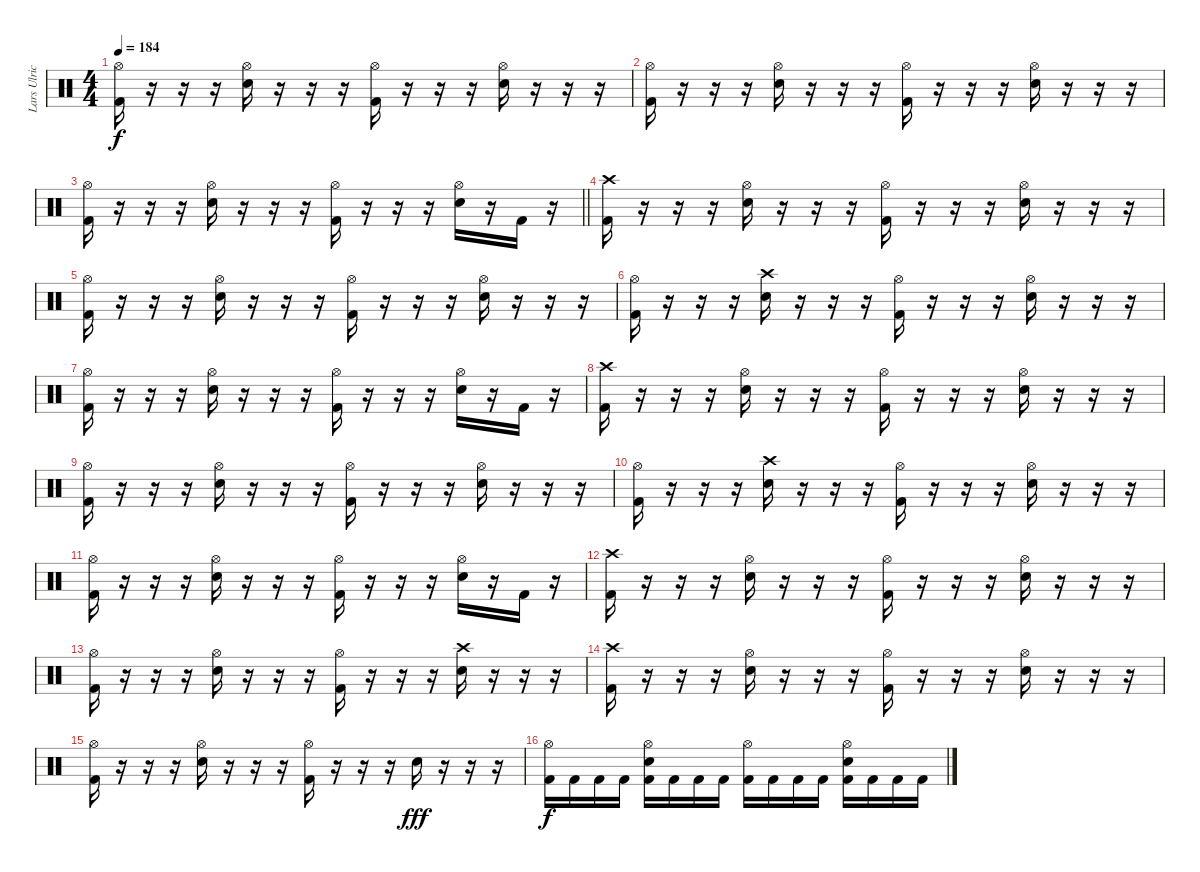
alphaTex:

\track ("Lars Ulrich" "Lars Ulric") {instrument percussion}
\staff {score}
\articulation defaults
\ts (4 4)
\tempo 184
\clef neutral
\ks c
("Hi-Hat (open)" "Kick (hit) 2").16{dy f} r.16 r.16 r.16 ("Electric Snare (hit)" "Hi-Hat (open)").16 r.16 r.16 r.16 ("Hi-Hat (open)" "Kick (hit) 2").16 r.16 r.16 r.16 ("Electric Snare (hit)" "Hi-Hat (open)").16 r.16 r.16 r.16 |
("Hi-Hat (open)" "Kick (hit) 2").16 r.16 r.16 r.16 ("Electric Snare (hit)" "Hi-Hat (open)").16 r.16 r.16 r.16 ("Hi-Hat (open)" "Kick (hit) 2").16 r.16 r.16 r.16 ("Electric Snare (hit)" "Hi-Hat (open)").16 r.16 r.16 r.16 |
\barLineRight lightlight
("Hi-Hat (open)" "Kick (hit) 2").16 r.16 r.16 r.16 ("Electric Snare (hit)" "Hi-Hat (open)").16 r.16 r.16 r.16 ("Hi-Hat (open)" "Kick (hit) 2").16 r.16 r.16 r.16 ("Electric Snare (hit)" "Hi-Hat (open)").16 r.16 "Kick (hit) 2".16 r.16 |
\section ("" "")
("Crash high (hit)" "Kick (hit) 2").16 r.16 r.16 r.16 ("Electric Snare (hit)" "Hi-Hat (open)").16 r.16 r.16 r.16 ("Hi-Hat (open)" "Kick (hit) 2").16 r.16 r.16 r.16 ("Electric Snare (hit)" "Hi-Hat (open)").16 r.16 r.16 r.16 |
("Hi-Hat (open)" "Kick (hit) 2").16 r.16 r.16 r.16 ("Electric Snare (hit)" "Hi-Hat (open)").16 r.16 r.16 r.16 ("Hi-Hat (open)" "Kick (hit) 2").16 r.16 r.16 r.16 ("Electric Snare (hit)" "Hi-Hat (open)").16 r.16 r.16 r.16 |
("Hi-Hat (open)" "Kick (hit) 2").16 r.16 r.16 r.16 ("Crash high (hit)" "Electric Snare (hit)").16 r.16 r.16 r.16 ("Hi-Hat (open)" "Kick (hit) 2").16 r.16 r.16 r.16 ("Electric Snare (hit)" "Hi-Hat (open)").16 r.16 r.16 r.16 |
("Hi-Hat (open)" "Kick (hit) 2").16 r.16 r.16 r.16 ("Electric Snare (hit)" "Hi-Hat (open)").16 r.16 r.16 r.16 ("Hi-Hat (open)" "Kick (hit) 2").16 r.16 r.16 r.16 ("Electric Snare (hit)" "Hi-Hat (open)").16 r.16 "Kick (hit) 2".16 r.16 |
("Crash high (hit)" "Kick (hit) 2").16 r.16 r.16 r.16 ("Electric Snare (hit)" "Hi-Hat (open)").16 r.16 r.16 r.16 ("Hi-Hat (open)" "Kick (hit) 2").16 r.16 r.16 r.16 ("Electric Snare (hit)" "Hi-Hat (open)").16 r.16 r.16 r.16 |
("Hi-Hat (open)" "Kick (hit) 2").16 r.16 r.16 r.16 ("Electric Snare (hit)" "Hi-Hat (open)").16 r.16 r.16 r.16 ("Hi-Hat (open)" "Kick (hit) 2").16 r.16 r.16 r.16 ("Electric Snare (hit)" "Hi-Hat (open)").16 r.16 r.16 r.16 |
("Hi-Hat (open)" "Kick (hit) 2").16 r.16 r.16 r.16 ("Crash high (hit)" "Electric Snare (hit)").16 r.16 r.16 r.16 ("Hi-Hat (open)" "Kick (hit) 2").16 r.16 r.16 r.16 ("Electric Snare (hit)" "Hi-Hat (open)").16 r.16 r.16 r.16 |
("Hi-Hat (open)" "Kick (hit) 2").16 r.16 r.16 r.16 ("Electric Snare (hit)" "Hi-Hat (open)").16 r.16 r.16 r.16 ("Hi-Hat (open)" "Kick (hit) 2").16 r.16 r.16 r.16 ("Electric Snare (hit)" "Hi-Hat (open)").16 r.16 "Kick (hit) 2".16 r.16 |
("Crash high (hit)" "Kick (hit) 2").16 r.16 r.16 r.16 ("Electric Snare (hit)" "Hi-Hat (open)").16 r.16 r.16 r.16 ("Hi-Hat (open)" "Kick (hit) 2").16 r.16 r.16 r.16 ("Electric Snare (hit)" "Hi-Hat (open)").16 r.16 r.16 r.16 |
("Hi-Hat (open)" "Kick (hit) 2").16 r.16 r.16 r.16 ("Electric Snare (hit)" "Hi-Hat (open)").16 r.16 r.16 r.16 ("Hi-Hat (open)" "Kick (hit) 2").16 r.16 r.16 r.16 ("Crash high (hit)" "Electric Snare (hit)").16 r.16 r.16 r.16 |
("Crash high (hit)" "Kick (hit) 2").16 r.16 r.16 r.16 ("Electric Snare (hit)" "Hi-Hat (open)").16 r.16 r.16 r.16 ("Hi-Hat (open)" "Kick (hit) 2").16 r.16 r.16 r.16 ("Electric Snare (hit)" "Hi-Hat (open)").16 r.16 r.16 r.16 |
("Hi-Hat (open)" "Kick (hit) 2").16 r.16 r.16 r.16 ("Electric Snare (hit)" "Hi-Hat (open)").16 r.16 r.16 r.16 ("Hi-Hat (open)" "Kick (hit) 2").16 r.16 r.16 r.16 "Electric Snare (hit)".16{dy fff} r.16 r.16 r.16 |
("Hi-Hat (open)" "Kick (hit) 2").16{dy f} "Kick (hit) 2".16 "Kick (hit) 2".16 "Kick (hit) 2".16 ("Electric Snare (hit)" "Hi-Hat (open)" "Kick (hit) 2").16 "Kick (hit) 2".16 "Kick (hit) 2".16 "Kick (hit) 2".16 ("Hi-Hat (open)" "Kick (hit) 2").16 "Kick (hit) 2".16 "Kick (hit) 2".16 "Kick (hit) 2".16 ("Electric Snare (hit)" "Hi-Hat (open)" "Kick (hit) 2").16 "Kick (hit) 2".16 "Kick (hit) 2".16 "Kick (hit) 2".16
